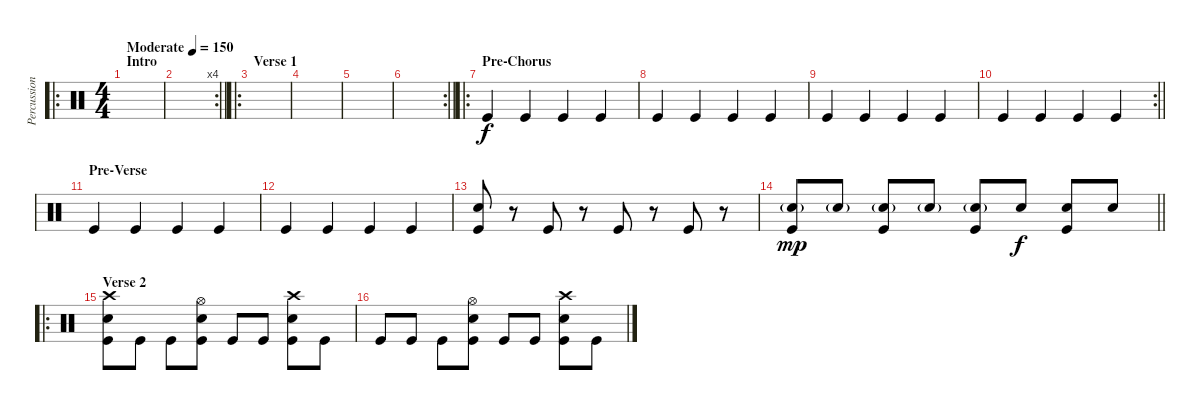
\track ("Percussion" "Percussion") {instrument percussion}
\staff {score}
\articulation defaults
\ro
\ts (4 4)
\section ("" "Intro")
\tempo (150 "Moderate")
\clef neutral
\ks c
|
\rc 4
\barLineRight lightlight
|
\ro
\section ("" "Verse 1")
|
|
|
\rc 2
\barLineRight lightlight
|
\ro
\section ("" "Pre-Chorus")
"Kick (hit)".4 "Kick (hit)".4 "Kick (hit)".4 "Kick (hit)".4 |
"Kick (hit)".4 "Kick (hit)".4 "Kick (hit)".4 "Kick (hit)".4 |
"Kick (hit)".4 "Kick (hit)".4 "Kick (hit)".4 "Kick (hit)".4 |
\rc 2
\barLineRight lightlight "Kick (hit)".4 "Kick (hit)".4 "Kick (hit)".4 "Kick (hit)".4
|
\section ("" "Pre-Verse")
"Kick (hit)".4 "Kick (hit)".4 "Kick (hit)".4 "Kick (hit)".4 |
"Kick (hit)".4 "Kick (hit)".4 "Kick (hit)".4 "Kick (hit)".4 |
("Kick (hit)" "Snare (hit) 2").8 r.8 "Kick (hit)".8 r.8 "Kick (hit)".8 r.8 "Kick (hit)".8 r.8 |
\barLineRight lightlight
("Kick (hit)" "Snare (hit) 2"{g}).8{dy mp} "Snare (hit) 2"{g}.8 ("Kick (hit)" "Snare (hit) 2"{g}).8 "Snare (hit) 2"{g}.8 ("Kick (hit)" "Snare (hit) 2"{g}).8 "Snare (hit) 2".8{dy f} ("Kick (hit)" "Snare (hit) 2").8 "Snare (hit) 2".8 |
\ro
\section ("" "Verse 2")
("Kick (hit)" "Crash high (hit)" "Snare (hit) 2").8 "Kick (hit)".8 "Kick (hit)".8 ("Kick (hit)" "Snare (hit) 2" "Hi-Hat (open)").8 "Kick (hit)".8 "Kick (hit)".8 ("Snare (hit) 2" "Kick (hit)" "Crash high (hit)").8 "Kick (hit)".8 |
"Kick (hit)".8 "Kick (hit)".8 "Kick (hit)".8 ("Kick (hit)" "Snare (hit) 2" "Hi-Hat (open)").8 "Kick (hit)".8 "Kick (hit)".8 ("Kick (hit)" "Snare (hit) 2" "Crash high (hit)").8 "Kick (hit)".8
